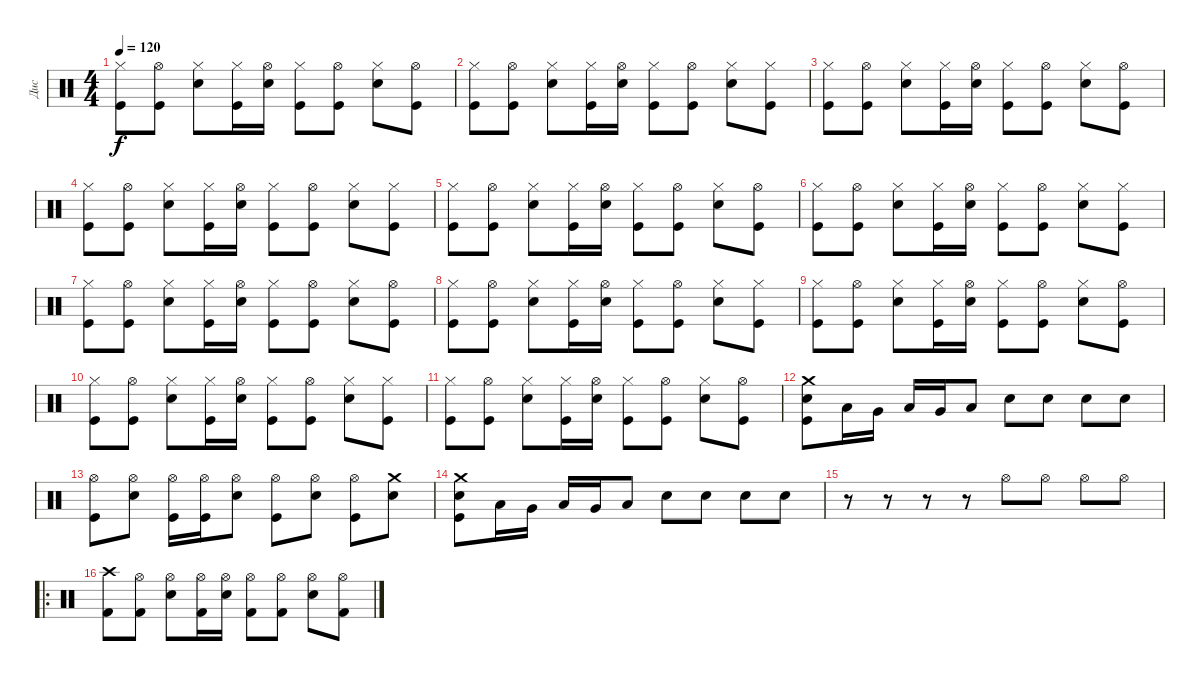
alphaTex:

\track ("Дис  " "Дис  ") {instrument percussion}
\staff {score}
\articulation defaults
\ts (4 4)
\tempo 120
\clef neutral
\ks c
("Hi-Hat (closed)" "Kick (hit)").8{dy f} ("Hi-Hat (open)" "Kick (hit)").8 ("Hi-Hat (closed)" "Electric Snare (hit)").8 ("Hi-Hat (closed)" "Kick (hit)").16 ("Hi-Hat (open)" "Electric Snare (hit)").16 ("Hi-Hat (closed)" "Kick (hit)").8 ("Hi-Hat (open)" "Kick (hit)").8 ("Hi-Hat (closed)" "Electric Snare (hit)").8 ("Hi-Hat (open)" "Kick (hit)").8 |
("Hi-Hat (closed)" "Kick (hit)").8 ("Hi-Hat (open)" "Kick (hit)").8 ("Hi-Hat (closed)" "Electric Snare (hit)").8 ("Hi-Hat (closed)" "Kick (hit)").16 ("Hi-Hat (open)" "Electric Snare (hit)").16 ("Hi-Hat (closed)" "Kick (hit)").8 ("Hi-Hat (open)" "Kick (hit)").8 ("Hi-Hat (closed)" "Electric Snare (hit)").8 ("Hi-Hat (closed)" "Kick (hit)").8 |
("Hi-Hat (closed)" "Kick (hit)").8 ("Hi-Hat (open)" "Kick (hit)").8 ("Hi-Hat (closed)" "Electric Snare (hit)").8 ("Hi-Hat (closed)" "Kick (hit)").16 ("Hi-Hat (open)" "Electric Snare (hit)").16 ("Hi-Hat (closed)" "Kick (hit)").8 ("Hi-Hat (open)" "Kick (hit)").8 ("Hi-Hat (closed)" "Electric Snare (hit)").8 ("Hi-Hat (open)" "Kick (hit)").8 |
("Hi-Hat (closed)" "Kick (hit)").8 ("Hi-Hat (open)" "Kick (hit)").8 ("Hi-Hat (closed)" "Electric Snare (hit)").8 ("Hi-Hat (closed)" "Kick (hit)").16 ("Hi-Hat (open)" "Electric Snare (hit)").16 ("Hi-Hat (closed)" "Kick (hit)").8 ("Hi-Hat (open)" "Kick (hit)").8 ("Hi-Hat (closed)" "Electric Snare (hit)").8 ("Hi-Hat (closed)" "Kick (hit)").8 |
("Hi-Hat (closed)" "Kick (hit)").8 ("Hi-Hat (open)" "Kick (hit)").8 ("Hi-Hat (closed)" "Electric Snare (hit)").8 ("Hi-Hat (closed)" "Kick (hit)").16 ("Hi-Hat (open)" "Electric Snare (hit)").16 ("Hi-Hat (closed)" "Kick (hit)").8 ("Hi-Hat (open)" "Kick (hit)").8 ("Hi-Hat (closed)" "Electric Snare (hit)").8 ("Hi-Hat (open)" "Kick (hit)").8 |
("Hi-Hat (closed)" "Kick (hit)").8 ("Hi-Hat (open)" "Kick (hit)").8 ("Hi-Hat (closed)" "Electric Snare (hit)").8 ("Hi-Hat (closed)" "Kick (hit)").16 ("Hi-Hat (open)" "Electric Snare (hit)").16 ("Hi-Hat (closed)" "Kick (hit)").8 ("Hi-Hat (open)" "Kick (hit)").8 ("Hi-Hat (closed)" "Electric Snare (hit)").8 ("Hi-Hat (closed)" "Kick (hit)").8 |
("Hi-Hat (closed)" "Kick (hit)").8 ("Hi-Hat (open)" "Kick (hit)").8 ("Hi-Hat (closed)" "Electric Snare (hit)").8 ("Hi-Hat (closed)" "Kick (hit)").16 ("Hi-Hat (open)" "Electric Snare (hit)").16 ("Hi-Hat (closed)" "Kick (hit)").8 ("Hi-Hat (open)" "Kick (hit)").8 ("Hi-Hat (closed)" "Electric Snare (hit)").8 ("Hi-Hat (open)" "Kick (hit)").8 |
("Hi-Hat (closed)" "Kick (hit)").8 ("Hi-Hat (open)" "Kick (hit)").8 ("Hi-Hat (closed)" "Electric Snare (hit)").8 ("Hi-Hat (closed)" "Kick (hit)").16 ("Hi-Hat (open)" "Electric Snare (hit)").16 ("Hi-Hat (closed)" "Kick (hit)").8 ("Hi-Hat (open)" "Kick (hit)").8 ("Hi-Hat (closed)" "Electric Snare (hit)").8 ("Hi-Hat (closed)" "Kick (hit)").8 |
("Hi-Hat (closed)" "Kick (hit)").8 ("Hi-Hat (open)" "Kick (hit)").8 ("Hi-Hat (closed)" "Electric Snare (hit)").8 ("Hi-Hat (closed)" "Kick (hit)").16 ("Hi-Hat (open)" "Electric Snare (hit)").16 ("Hi-Hat (closed)" "Kick (hit)").8 ("Hi-Hat (open)" "Kick (hit)").8 ("Hi-Hat (closed)" "Electric Snare (hit)").8 ("Hi-Hat (open)" "Kick (hit)").8 |
("Hi-Hat (closed)" "Kick (hit)").8 ("Hi-Hat (open)" "Kick (hit)").8 ("Hi-Hat (closed)" "Electric Snare (hit)").8 ("Hi-Hat (closed)" "Kick (hit)").16 ("Hi-Hat (open)" "Electric Snare (hit)").16 ("Hi-Hat (closed)" "Kick (hit)").8 ("Hi-Hat (open)" "Kick (hit)").8 ("Hi-Hat (closed)" "Electric Snare (hit)").8 ("Hi-Hat (closed)" "Kick (hit)").8 |
("Hi-Hat (closed)" "Kick (hit)").8 ("Hi-Hat (open)" "Kick (hit)").8 ("Hi-Hat (closed)" "Electric Snare (hit)").8 ("Hi-Hat (closed)" "Kick (hit)").16 ("Hi-Hat (open)" "Electric Snare (hit)").16 ("Hi-Hat (closed)" "Kick (hit)").8 ("Hi-Hat (open)" "Kick (hit)").8 ("Hi-Hat (closed)" "Electric Snare (hit)").8 ("Hi-Hat (open)" "Kick (hit)").8 |
("Crash medium (hit)" "Electric Snare (hit)" "Kick (hit)").8 "Low Tom (hit)".16 "Very Low Tom (hit)".16 "Low Floor Tom (hit)".16 "Very Low Tom (hit)".16 "Low Tom (hit)".8 "Electric Snare (hit)".8 "Electric Snare (hit)".8 "Electric Snare (hit)".8 "Electric Snare (hit)".8 |
("Hi-Hat (open)" "Kick (hit)").8 ("Hi-Hat (open)" "Electric Snare (hit)").8 ("Hi-Hat (open)" "Kick (hit)").16 ("Hi-Hat (open)" "Kick (hit)").16 ("Hi-Hat (open)" "Electric Snare (hit)").8 ("Hi-Hat (open)" "Kick (hit)").8 ("Hi-Hat (open)" "Electric Snare (hit)").8 ("Hi-Hat (open)" "Kick (hit)").8 ("Crash medium (hit)" "Electric Snare (hit)").8 |
("Crash medium (hit)" "Electric Snare (hit)" "Kick (hit)").8 "Low Tom (hit)".16 "Very Low Tom (hit)".16 "Low Floor Tom (hit)".16 "Very Low Tom (hit)".16 "Low Tom (hit)".8 "Electric Snare (hit)".8 "Electric Snare (hit)".8 "Electric Snare (hit)".8 "Electric Snare (hit)".8 |
r.8 r.8 r.8 r.8 "Hi-Hat (open)".8 "Hi-Hat (open)".8 "Hi-Hat (open)".8 "Hi-Hat (open)".8 |
\ro
("Crash high (hit)" "Kick (hit) 2").8 ("Hi-Hat (open)" "Kick (hit) 2").8 ("Hi-Hat (open)" "Electric Snare (hit)").8 ("Hi-Hat (open)" "Kick (hit) 2").16 ("Hi-Hat (open)" "Electric Snare (hit)").16 ("Hi-Hat (open)" "Kick (hit) 2").8 ("Hi-Hat (open)" "Kick (hit) 2").8 ("Hi-Hat (open)" "Electric Snare (hit)").8 ("Hi-Hat (open)" "Kick (hit) 2").8
